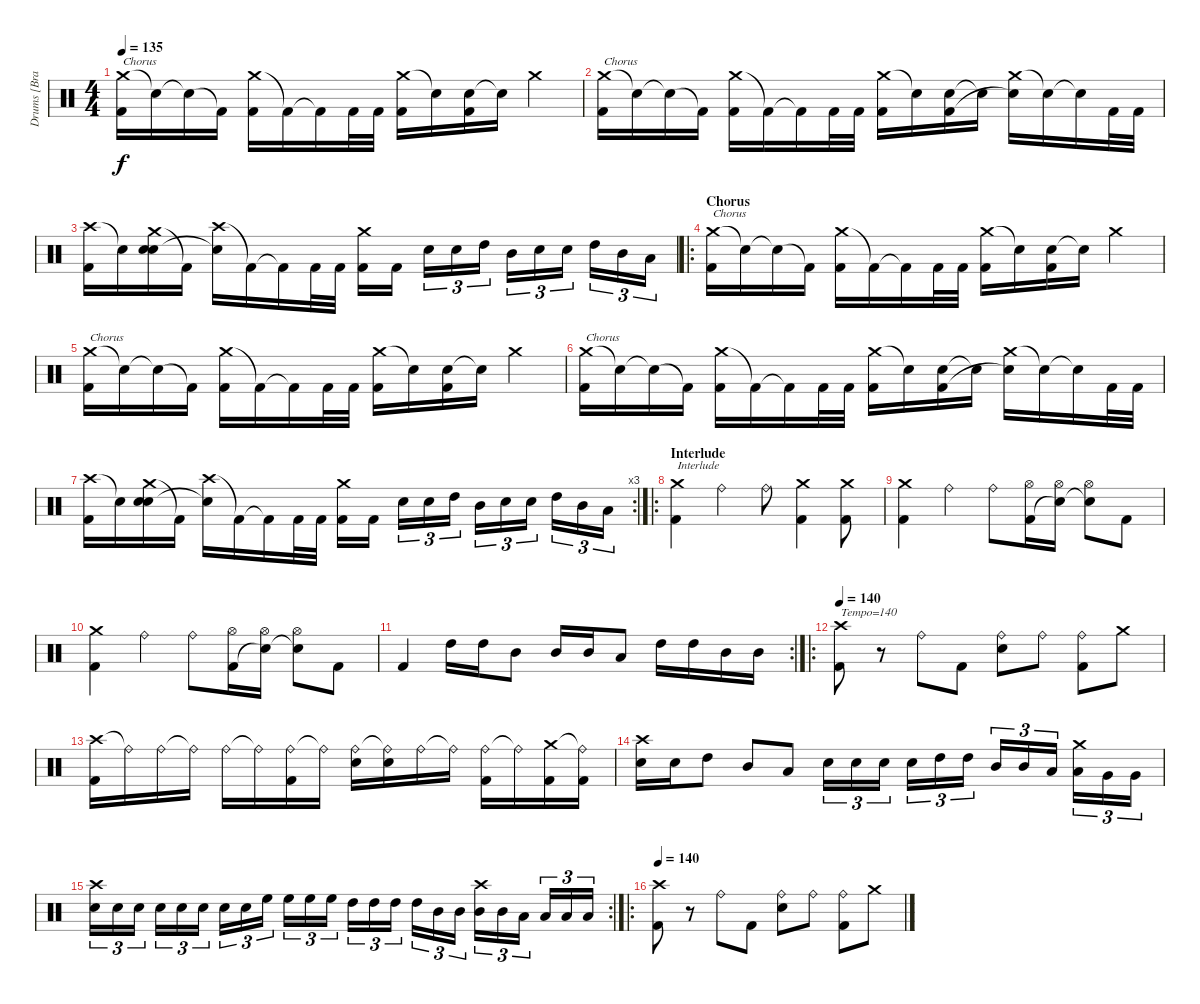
\track ("Drums [Bran Dailor]" "Drums [Bra") {instrument percussion}
\staff {score}
\articulation defaults
\ts (4 4)
\tempo 135
\clef neutral
\ks c
("Crash medium (hit)" "Kick (hit) 2").16{txt "Chorus" dy f} "Snare (hit)"{t}.16 "Snare (hit)"{t}.16 "Kick (hit) 2"{t}.16 ("Crash medium (hit)" "Kick (hit) 2").16 "Kick (hit) 2"{t}.16 "Kick (hit) 2"{t}.16 "Kick (hit) 2".32 "Kick (hit) 2".32 ("Crash medium (hit)" "Kick (hit) 2").16 "Snare (hit)"{t}.16 ("Electric Snare (hit)" "Kick (hit) 2").16 "Snare (hit)"{t}.16 "Crash medium (hit)".4 |
("Crash medium (hit)" "Kick (hit) 2").16{txt "Chorus"} "Snare (hit)"{t}.16 "Snare (hit)"{t}.16 "Kick (hit) 2"{t}.16 ("Crash medium (hit)" "Kick (hit) 2").16 "Kick (hit) 2"{t}.16 "Kick (hit) 2"{t}.16 "Kick (hit) 2".32 "Kick (hit) 2".32 ("Crash medium (hit)" "Kick (hit) 2").16 "Snare (hit)"{t}.16 ("Electric Snare (hit)" "Kick (hit) 2").16 "Snare (hit)"{t}.16 ("Crash medium (hit)" "Snare (hit)"{t}).16 "Snare (hit)"{t}.16 "Snare (hit)"{t}.16 "Kick (hit) 2".32 "Kick (hit) 2".32 |
("Crash high (hit)" "Kick (hit) 2").16 "Snare (hit)"{t}.16 ("Crash medium (hit)" "Electric Snare (hit)" "Snare (hit)").16 "Kick (hit) 2"{t}.16 ("Crash high (hit)" "Snare (hit)"{t}).16 "Kick (hit) 2"{t}.16 "Kick (hit) 2"{t}.16 "Kick (hit) 2".32 "Kick (hit) 2".32 ("Crash medium (hit)" "Kick (hit) 2").16 "Kick (hit) 2".16 "Electric Snare (hit)".16{tu (3 2)} "Electric Snare (hit)".16{tu (3 2)} "High Tom (hit)".16{tu (3 2)} "Mid Tom (hit)".16{tu (3 2)} "Electric Snare (hit)".16{tu (3 2)} "Electric Snare (hit)".16{tu (3 2)} "High Tom (hit)".16{tu (3 2)} "Mid Tom (hit)".16{tu (3 2)} "Low Tom (hit)".16{tu (3 2)} |
\ro
\section ("" "Chorus")
("Crash medium (hit)" "Kick (hit) 2").16{txt "Chorus"} "Snare (hit)"{t}.16 "Snare (hit)"{t}.16 "Kick (hit) 2"{t}.16 ("Crash medium (hit)" "Kick (hit) 2").16 "Kick (hit) 2"{t}.16 "Kick (hit) 2"{t}.16 "Kick (hit) 2".32 "Kick (hit) 2".32 ("Crash medium (hit)" "Kick (hit) 2").16 "Snare (hit)"{t}.16 ("Electric Snare (hit)" "Kick (hit) 2").16 "Snare (hit)"{t}.16 "Crash medium (hit)".4 |
("Crash medium (hit)" "Kick (hit) 2").16{txt "Chorus"} "Snare (hit)"{t}.16 "Snare (hit)"{t}.16 "Kick (hit) 2"{t}.16 ("Crash medium (hit)" "Kick (hit) 2").16 "Kick (hit) 2"{t}.16 "Kick (hit) 2"{t}.16 "Kick (hit) 2".32 "Kick (hit) 2".32 ("Crash medium (hit)" "Kick (hit) 2").16 "Snare (hit)"{t}.16 ("Electric Snare (hit)" "Kick (hit) 2").16 "Snare (hit)"{t}.16 "Crash medium (hit)".4 |
("Crash medium (hit)" "Kick (hit) 2").16{txt "Chorus"} "Snare (hit)"{t}.16 "Snare (hit)"{t}.16 "Kick (hit) 2"{t}.16 ("Crash medium (hit)" "Kick (hit) 2").16 "Kick (hit) 2"{t}.16 "Kick (hit) 2"{t}.16 "Kick (hit) 2".32 "Kick (hit) 2".32 ("Crash medium (hit)" "Kick (hit) 2").16 "Snare (hit)"{t}.16 ("Electric Snare (hit)" "Kick (hit) 2").16 "Snare (hit)"{t}.16 ("Crash medium (hit)" "Snare (hit)"{t}).16 "Snare (hit)"{t}.16 "Snare (hit)"{t}.16 "Kick (hit) 2".32 "Kick (hit) 2".32 |
\rc 3
("Crash high (hit)" "Kick (hit) 2").16 "Snare (hit)"{t}.16 ("Crash medium (hit)" "Electric Snare (hit)" "Snare (hit)").16 "Kick (hit) 2"{t}.16 ("Crash high (hit)" "Snare (hit)"{t}).16 "Kick (hit) 2"{t}.16 "Kick (hit) 2"{t}.16 "Kick (hit) 2".32 "Kick (hit) 2".32 ("Crash medium (hit)" "Kick (hit) 2").16 "Kick (hit) 2".16 "Electric Snare (hit)".16{tu (3 2)} "Electric Snare (hit)".16{tu (3 2)} "High Tom (hit)".16{tu (3 2)} "Mid Tom (hit)".16{tu (3 2)} "Electric Snare (hit)".16{tu (3 2)} "Electric Snare (hit)".16{tu (3 2)} "High Tom (hit)".16{tu (3 2)} "Mid Tom (hit)".16{tu (3 2)} "Low Tom (hit)".16{tu (3 2)} |
\ro
\section ("" "Interlude")
("Crash medium (hit)" "Kick (hit) 2").4{txt "Interlude"} "Ride (bell)".4 "Ride (bell)".8 ("Crash medium (hit)" "Kick (hit) 2").4 ("Crash medium (hit)" "Kick (hit) 2").8 |
("Crash medium (hit)" "Kick (hit) 2").4 "Ride (bell)".4 "Ride (bell)".8 ("Hi-Hat (open)" "Kick (hit) 2").16 ("Hi-Hat (open)" "Snare (hit)"{t}).16 ("Hi-Hat (open)" "Snare (hit)"{t}).8 "Kick (hit) 2".8 |
("Crash medium (hit)" "Kick (hit) 2").4 "Ride (bell)".4 "Ride (bell)".8 ("Hi-Hat (open)" "Kick (hit) 2").16 ("Hi-Hat (open)" "Snare (hit)"{t}).16 ("Hi-Hat (open)" "Snare (hit)"{t}).8 "Kick (hit) 2".8 |
\rc 2 "Kick (hit) 2".4 "High Tom (hit)".16 "High Tom (hit)".16 "Mid Tom (hit)".8 "Mid Tom (hit)".16 "Mid Tom (hit)".16 "Low Tom (hit)".8 "High Tom (hit)".16 "High Tom (hit)".16 "Mid Tom (hit)".16 "Mid Tom (hit)".16
|
\ro
\tempo 140
("Crash high (hit)" "Kick (hit) 2").8{txt "Tempo=140"} r.8 "Ride (bell)".8 "Kick (hit) 2".8 ("Ride (bell)" "Electric Snare (hit)").8 "Ride (bell)".8 ("Ride (bell)" "Kick (hit) 2").8 "Crash medium (hit)".8 |
("Crash high (hit)" "Kick (hit) 2").16 "Ride (bell)"{t}.16 "Ride (bell)".16 "Ride (bell)"{t}.16 "Ride (bell)".16 "Ride (bell)"{t}.16 ("Ride (bell)" "Kick (hit) 2").16 "Ride (bell)"{t}.16 ("Ride (bell)" "Electric Snare (hit)").16 ("Ride (bell)"{t} "Electric Snare (hit)").16 "Ride (bell)".16 "Ride (bell)"{t}.16 ("Ride (bell)" "Kick (hit) 2").16 "Ride (bell)"{t}.16 ("Crash medium (hit)" "Kick (hit) 2").16 ("Ride (bell)"{t} "Kick (hit) 2").16 |
("Crash high (hit)" "Electric Snare (hit)").16 "Electric Snare (hit)".16 "High Tom (hit)".8 "Mid Tom (hit)".8 "Low Tom (hit)".8 "Electric Snare (hit)".16{tu (3 2)} "Electric Snare (hit)".16{tu (3 2)} "Electric Snare (hit)".16{tu (3 2)} "Electric Snare (hit)".16{tu (3 2)} "High Tom (hit)".16{tu (3 2)} "High Tom (hit)".16{tu (3 2)} "Mid Tom (hit)".16{tu (3 2)} "Mid Tom (hit)".16{tu (3 2)} "Low Tom (hit)".16{tu (3 2)} ("Crash medium (hit)" "Low Tom (hit)").16{tu (3 2)} "Very Low Tom (hit)".16{tu (3 2)} "Very Low Tom (hit)".16{tu (3 2)} |
\rc 2
("Crash high (hit)" "Electric Snare (hit)").16{tu (3 2)} "Electric Snare (hit)".16{tu (3 2)} "Electric Snare (hit)".16{tu (3 2)} "Electric Snare (hit)".16{tu (3 2)} "Electric Snare (hit)".16{tu (3 2)} "Electric Snare (hit)".16{tu (3 2)} "Electric Snare (hit)".16{tu (3 2)} "Electric Snare (hit)".16{tu (3 2)} "High Floor Tom (hit)".16{tu (3 2)} "High Floor Tom (hit)".16{tu (3 2)} "High Floor Tom (hit)".16{tu (3 2)} "High Floor Tom (hit)".16{tu (3 2)} "High Tom (hit)".16{tu (3 2)} "High Tom (hit)".16{tu (3 2)} "High Tom (hit)".16{tu (3 2)} "High Tom (hit)".16{tu (3 2)} "Mid Tom (hit)".16{tu (3 2)} "Mid Tom (hit)".16{tu (3 2)} ("Crash high (hit)" "Mid Tom (hit)").16{tu (3 2)} "Mid Tom (hit)".16{tu (3 2)} "Low Tom (hit)".16{tu (3 2)} "Low Tom (hit)".16{tu (3 2)} "Low Tom (hit)".16{tu (3 2)} "Low Tom (hit)".16{tu (3 2)} |
\ro
\tempo 140
("Crash high (hit)" "Kick (hit) 2").8 r.8 "Ride (bell)".8 "Kick (hit) 2".8 ("Ride (bell)" "Electric Snare (hit)").8 "Ride (bell)".8 ("Ride (bell)" "Kick (hit) 2").8 "Crash medium (hit)".8
